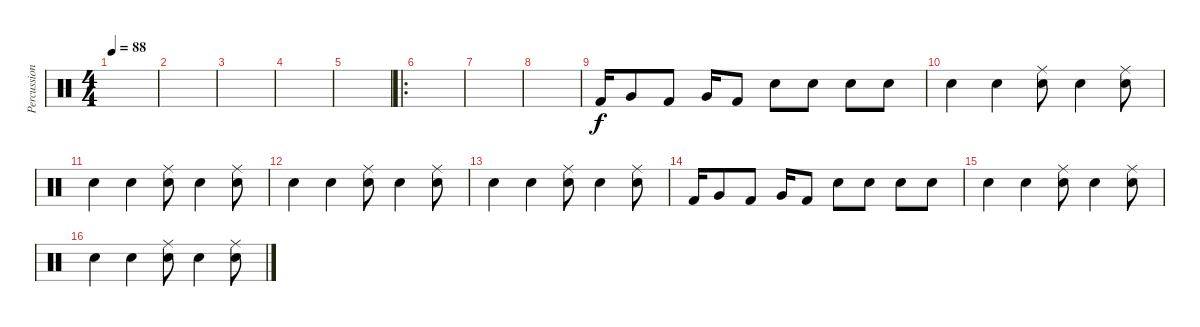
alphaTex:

\track ("Percussions" "Percussion") {instrument percussion}
\staff {score}
\articulation defaults
\ts (4 4)
\tempo 88
\clef neutral
\ks c
|
|
|
|
|
\ro
|
|
|
"Kick (hit) 2".16 "Very Low Tom (hit)".8 "Kick (hit) 2".8 "Very Low Tom (hit)".16 "Kick (hit) 2".8 "Electric Snare (hit)".8 "Electric Snare (hit)".8 "Electric Snare (hit)".8 "Electric Snare (hit)".8 |
"Electric Snare (hit)".4 "Electric Snare (hit)".4 ("Electric Snare (hit)" "Ride (middle)").8 "Electric Snare (hit)".4 ("Electric Snare (hit)" "Ride (middle)").8 |
"Electric Snare (hit)".4 "Electric Snare (hit)".4 ("Electric Snare (hit)" "Ride (middle)").8 "Electric Snare (hit)".4 ("Electric Snare (hit)" "Ride (middle)").8 |
"Electric Snare (hit)".4 "Electric Snare (hit)".4 ("Electric Snare (hit)" "Ride (middle)").8 "Electric Snare (hit)".4 ("Electric Snare (hit)" "Ride (middle)").8 |
"Electric Snare (hit)".4 "Electric Snare (hit)".4 ("Electric Snare (hit)" "Ride (middle)").8 "Electric Snare (hit)".4 ("Electric Snare (hit)" "Ride (middle)").8 |
"Kick (hit) 2".16 "Very Low Tom (hit)".8 "Kick (hit) 2".8 "Very Low Tom (hit)".16 "Kick (hit) 2".8 "Electric Snare (hit)".8 "Electric Snare (hit)".8 "Electric Snare (hit)".8 "Electric Snare (hit)".8 |
"Electric Snare (hit)".4 "Electric Snare (hit)".4 ("Electric Snare (hit)" "Ride (middle)").8 "Electric Snare (hit)".4 ("Electric Snare (hit)" "Ride (middle)").8 |
"Electric Snare (hit)".4 "Electric Snare (hit)".4 ("Electric Snare (hit)" "Ride (middle)").8 "Electric Snare (hit)".4 ("Electric Snare (hit)" "Ride (middle)").8
